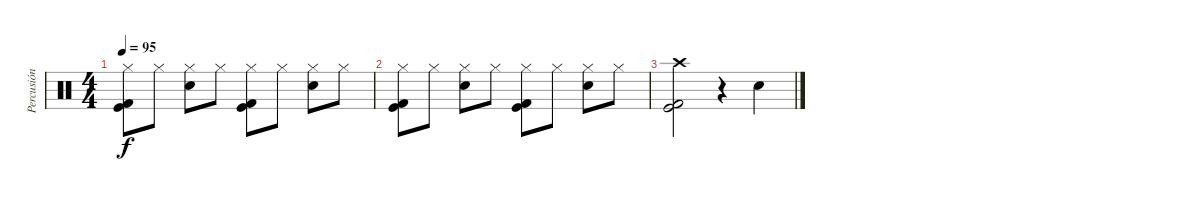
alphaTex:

\track ("Percusión" "Percusión") {instrument percussion}
\staff {score}
\articulation defaults
\ts (4 4)
\tempo 95
\clef neutral
\ks c
("Kick (hit) 2" "Hi-Hat (closed)" "Kick (hit)").8{dy f} "Hi-Hat (closed)".8 ("Snare (hit) 2" "Hi-Hat (closed)").8 "Hi-Hat (closed)".8 ("Kick (hit) 2" "Hi-Hat (closed)" "Kick (hit)").8 "Hi-Hat (closed)".8 ("Snare (hit) 2" "Hi-Hat (closed)").8 "Hi-Hat (closed)".8 |
("Kick (hit) 2" "Hi-Hat (closed)" "Kick (hit)").8 "Hi-Hat (closed)".8 ("Snare (hit) 2" "Hi-Hat (closed)").8 "Hi-Hat (closed)".8 ("Kick (hit) 2" "Hi-Hat (closed)" "Kick (hit)").8 "Hi-Hat (closed)".8 ("Snare (hit) 2" "Hi-Hat (closed)").8 "Hi-Hat (closed)".8 |
("Kick (hit) 2" "Crash high (hit)" "Kick (hit)").2 r.4 "Snare (hit) 2".4
